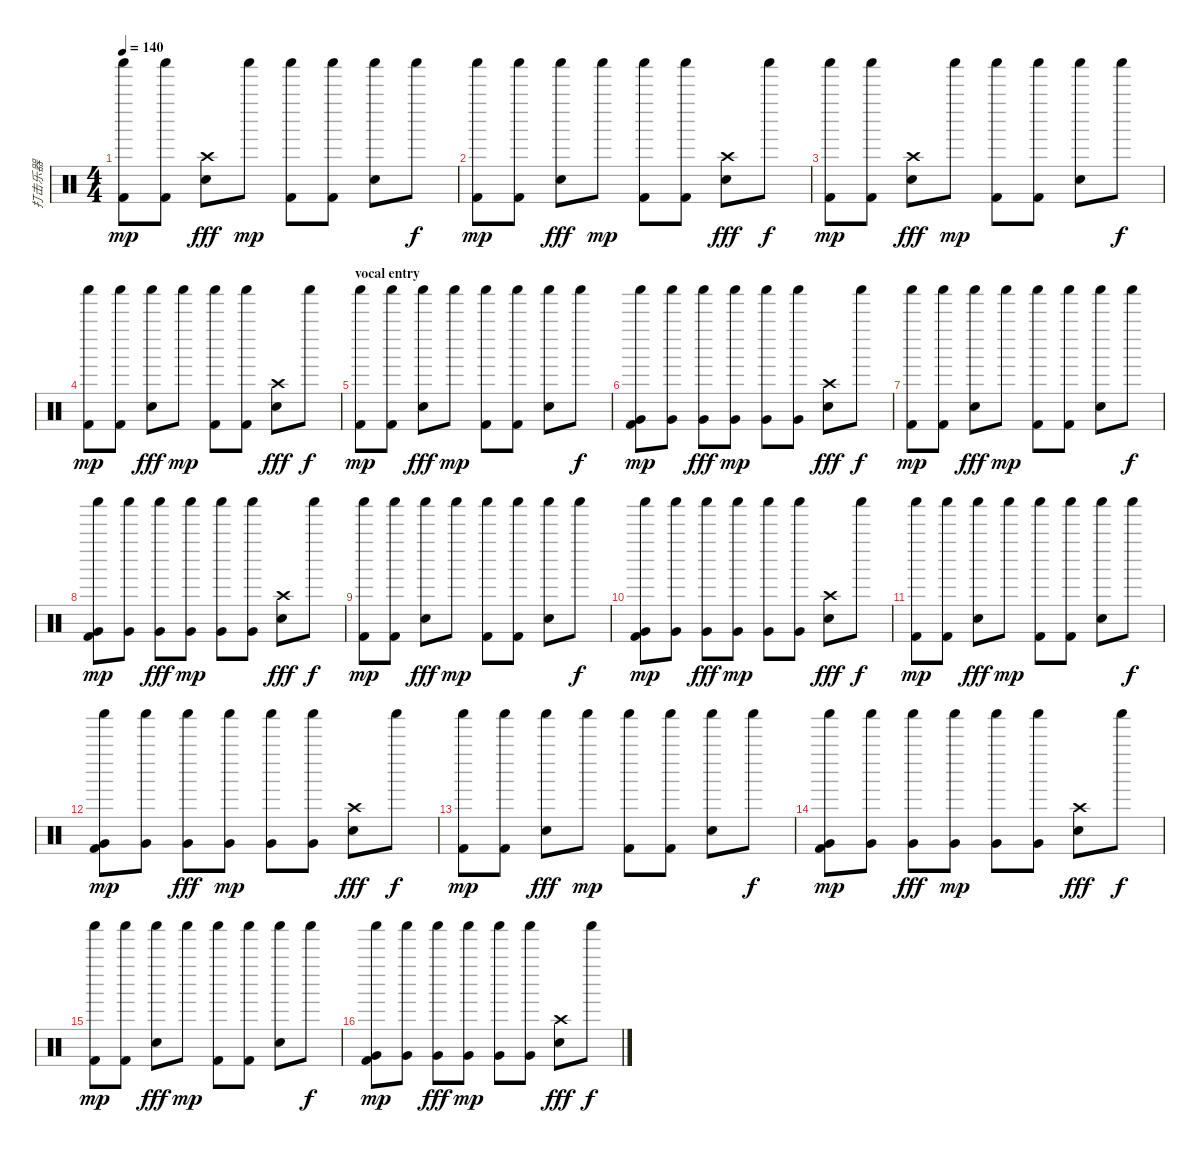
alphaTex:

\track ("打击乐器" "打击乐器") {instrument percussion}
\staff {score}
\articulation defaults
\ts (4 4)
\tempo 140
\clef neutral
\ks c
("Shaker (hit)" "Kick (hit) 2").8{dy mp} ("Shaker (hit)" "Kick (hit) 2").8 ("Crash high (hit)" "Electric Snare (hit)").8{dy fff} "Shaker (hit)".8{dy mp} ("Shaker (hit)" "Kick (hit) 2").8 ("Shaker (hit)" "Kick (hit) 2").8 ("Shaker (hit)" "Electric Snare (hit)").8 "Shaker (hit)".8{dy f} |
("Shaker (hit)" "Kick (hit) 2").8{dy mp} ("Shaker (hit)" "Kick (hit) 2").8 ("Shaker (hit)" "Electric Snare (hit)").8{dy fff} "Shaker (hit)".8{dy mp} ("Shaker (hit)" "Kick (hit) 2").8 ("Shaker (hit)" "Kick (hit) 2").8 ("Crash high (hit)" "Electric Snare (hit)").8{dy fff} "Shaker (hit)".8{dy f} |
("Shaker (hit)" "Kick (hit) 2").8{dy mp} ("Shaker (hit)" "Kick (hit) 2").8 ("Crash high (hit)" "Electric Snare (hit)").8{dy fff} "Shaker (hit)".8{dy mp} ("Shaker (hit)" "Kick (hit) 2").8 ("Shaker (hit)" "Kick (hit) 2").8 ("Shaker (hit)" "Electric Snare (hit)").8 "Shaker (hit)".8{dy f} |
("Shaker (hit)" "Kick (hit) 2").8{dy mp} ("Shaker (hit)" "Kick (hit) 2").8 ("Shaker (hit)" "Electric Snare (hit)").8{dy fff} "Shaker (hit)".8{dy mp} ("Shaker (hit)" "Kick (hit) 2").8 ("Shaker (hit)" "Kick (hit) 2").8 ("Crash high (hit)" "Electric Snare (hit)").8{dy fff} "Shaker (hit)".8{dy f} |
\section ("" "vocal entry")
("Shaker (hit)" "Kick (hit) 2").8{dy mp} ("Shaker (hit)" "Kick (hit) 2").8 ("Shaker (hit)" "Electric Snare (hit)").8{dy fff} "Shaker (hit)".8{dy mp} ("Shaker (hit)" "Kick (hit) 2").8 ("Shaker (hit)" "Kick (hit) 2").8 ("Shaker (hit)" "Electric Snare (hit)").8 "Shaker (hit)".8{dy f} |
("Shaker (hit)" "Very Low Tom (hit)" "Kick (hit) 2").8{dy mp} ("Shaker (hit)" "Very Low Tom (hit)").8 ("Shaker (hit)" "Very Low Tom (hit)").8{dy fff} ("Shaker (hit)" "Very Low Tom (hit)").8{dy mp} ("Shaker (hit)" "Very Low Tom (hit)").8 ("Shaker (hit)" "Very Low Tom (hit)").8 ("Crash high (hit)" "Electric Snare (hit)").8{dy fff} "Shaker (hit)".8{dy f} |
("Shaker (hit)" "Kick (hit) 2").8{dy mp} ("Shaker (hit)" "Kick (hit) 2").8 ("Shaker (hit)" "Electric Snare (hit)").8{dy fff} "Shaker (hit)".8{dy mp} ("Shaker (hit)" "Kick (hit) 2").8 ("Shaker (hit)" "Kick (hit) 2").8 ("Shaker (hit)" "Electric Snare (hit)").8 "Shaker (hit)".8{dy f} |
("Shaker (hit)" "Very Low Tom (hit)" "Kick (hit) 2").8{dy mp} ("Shaker (hit)" "Very Low Tom (hit)").8 ("Shaker (hit)" "Very Low Tom (hit)").8{dy fff} ("Shaker (hit)" "Very Low Tom (hit)").8{dy mp} ("Shaker (hit)" "Very Low Tom (hit)").8 ("Shaker (hit)" "Very Low Tom (hit)").8 ("Crash high (hit)" "Electric Snare (hit)").8{dy fff} "Shaker (hit)".8{dy f} |
("Shaker (hit)" "Kick (hit) 2").8{dy mp} ("Shaker (hit)" "Kick (hit) 2").8 ("Shaker (hit)" "Electric Snare (hit)").8{dy fff} "Shaker (hit)".8{dy mp} ("Shaker (hit)" "Kick (hit) 2").8 ("Shaker (hit)" "Kick (hit) 2").8 ("Shaker (hit)" "Electric Snare (hit)").8 "Shaker (hit)".8{dy f} |
("Shaker (hit)" "Very Low Tom (hit)" "Kick (hit) 2").8{dy mp} ("Shaker (hit)" "Very Low Tom (hit)").8 ("Shaker (hit)" "Very Low Tom (hit)").8{dy fff} ("Shaker (hit)" "Very Low Tom (hit)").8{dy mp} ("Shaker (hit)" "Very Low Tom (hit)").8 ("Shaker (hit)" "Very Low Tom (hit)").8 ("Crash high (hit)" "Electric Snare (hit)").8{dy fff} "Shaker (hit)".8{dy f} |
("Shaker (hit)" "Kick (hit) 2").8{dy mp} ("Shaker (hit)" "Kick (hit) 2").8 ("Shaker (hit)" "Electric Snare (hit)").8{dy fff} "Shaker (hit)".8{dy mp} ("Shaker (hit)" "Kick (hit) 2").8 ("Shaker (hit)" "Kick (hit) 2").8 ("Shaker (hit)" "Electric Snare (hit)").8 "Shaker (hit)".8{dy f} |
("Shaker (hit)" "Very Low Tom (hit)" "Kick (hit) 2").8{dy mp} ("Shaker (hit)" "Very Low Tom (hit)").8 ("Shaker (hit)" "Very Low Tom (hit)").8{dy fff} ("Shaker (hit)" "Very Low Tom (hit)").8{dy mp} ("Shaker (hit)" "Very Low Tom (hit)").8 ("Shaker (hit)" "Very Low Tom (hit)").8 ("Crash high (hit)" "Electric Snare (hit)").8{dy fff} "Shaker (hit)".8{dy f} |
("Shaker (hit)" "Kick (hit) 2").8{dy mp} ("Shaker (hit)" "Kick (hit) 2").8 ("Shaker (hit)" "Electric Snare (hit)").8{dy fff} "Shaker (hit)".8{dy mp} ("Shaker (hit)" "Kick (hit) 2").8 ("Shaker (hit)" "Kick (hit) 2").8 ("Shaker (hit)" "Electric Snare (hit)").8 "Shaker (hit)".8{dy f} |
("Shaker (hit)" "Very Low Tom (hit)" "Kick (hit) 2").8{dy mp} ("Shaker (hit)" "Very Low Tom (hit)").8 ("Shaker (hit)" "Very Low Tom (hit)").8{dy fff} ("Shaker (hit)" "Very Low Tom (hit)").8{dy mp} ("Shaker (hit)" "Very Low Tom (hit)").8 ("Shaker (hit)" "Very Low Tom (hit)").8 ("Crash high (hit)" "Electric Snare (hit)").8{dy fff} "Shaker (hit)".8{dy f} |
("Shaker (hit)" "Kick (hit) 2").8{dy mp} ("Shaker (hit)" "Kick (hit) 2").8 ("Shaker (hit)" "Electric Snare (hit)").8{dy fff} "Shaker (hit)".8{dy mp} ("Shaker (hit)" "Kick (hit) 2").8 ("Shaker (hit)" "Kick (hit) 2").8 ("Shaker (hit)" "Electric Snare (hit)").8 "Shaker (hit)".8{dy f} |
("Shaker (hit)" "Very Low Tom (hit)" "Kick (hit) 2").8{dy mp} ("Shaker (hit)" "Very Low Tom (hit)").8 ("Shaker (hit)" "Very Low Tom (hit)").8{dy fff} ("Shaker (hit)" "Very Low Tom (hit)").8{dy mp} ("Shaker (hit)" "Very Low Tom (hit)").8 ("Shaker (hit)" "Very Low Tom (hit)").8 ("Crash high (hit)" "Electric Snare (hit)").8{dy fff} "Shaker (hit)".8{dy f}
